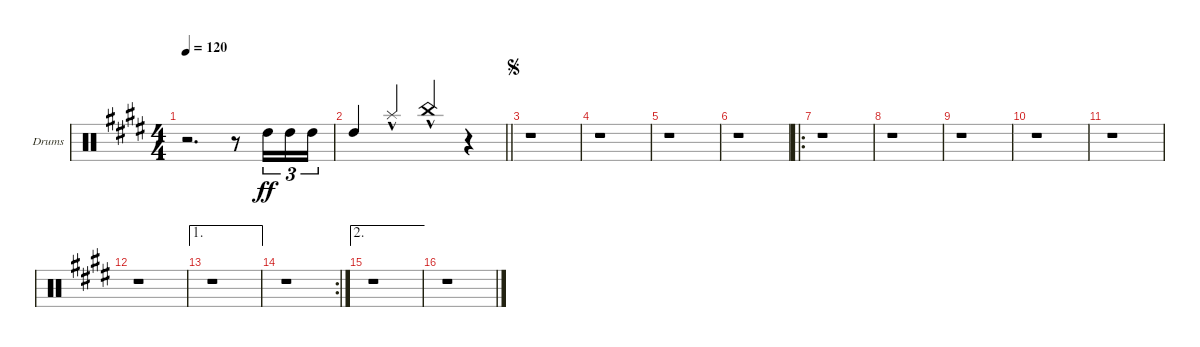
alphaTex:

\defaultSystemsLayout 4
\bracketExtendMode groupsimilarinstruments
\firstSystemTrackNameOrientation horizontal
\otherSystemsTrackNameOrientation horizontal
\track ("Drumkit" "Drums") {instrument percussion}
\staff {score}
\articulation defaults
\ts (4 4)
\tempo 120
\clef neutral
\ks e
r.2{d dy ff} r.8 "High Tom (hit)".16{tu (3 2)} "High Tom (hit)".16{tu (3 2)} "High Tom (hit)".16{tu (3 2)} |
\barLineRight lightlight "High Tom (hit)".4{beam invert} "Splash (hit)"{hac}.4{beam invert} "China (hit)"{hac}.4{beam invert}
r.4{beam invert} |
\jump segno
r.1 |
r.1 |
r.1 |
r.1 |
\ro
r.1 |
r.1 |
r.1 |
r.1 |
r.1 |
r.1 |
\ae 1
r.1 |
\rc 2
r.1 |
\ae 2
r.1 |
r.1
